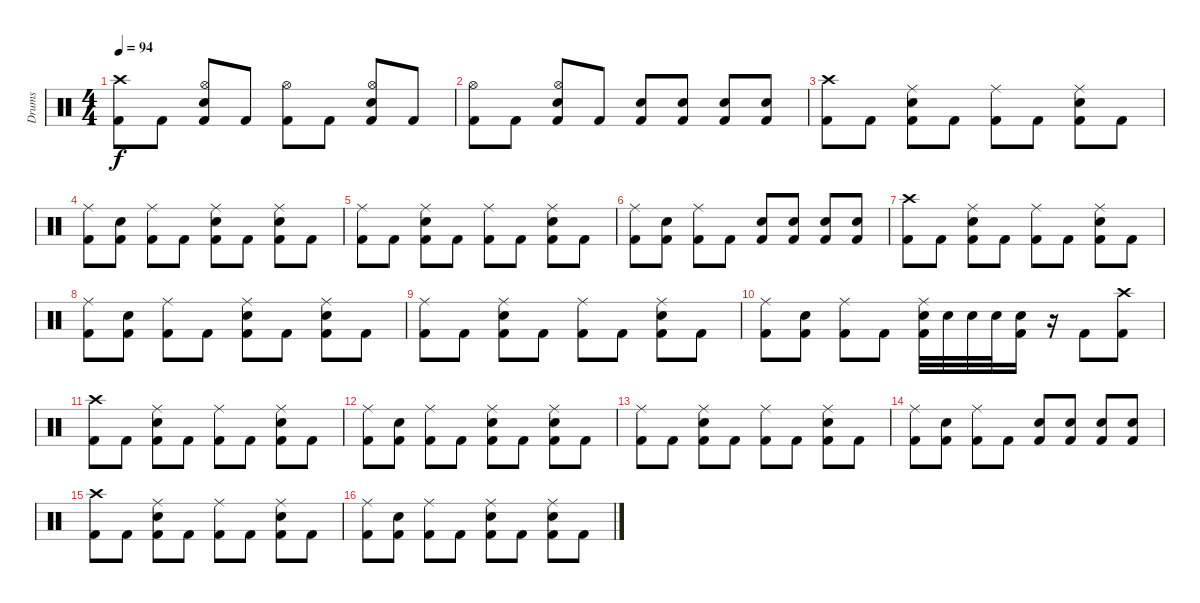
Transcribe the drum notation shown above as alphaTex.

\track ("Drums" "Drums") {instrument percussion}
\staff {score}
\articulation defaults
\ts (4 4)
\tempo 94
\clef neutral
\ks c
("Crash high (hit)" "Kick (hit) 2").8{dy f} "Kick (hit) 2".8 ("Hi-Hat (open)" "Snare (hit) 2" "Kick (hit) 2").8 "Kick (hit) 2".8 ("Hi-Hat (open)" "Kick (hit) 2").8 "Kick (hit) 2".8 ("Hi-Hat (open)" "Snare (hit) 2" "Kick (hit) 2").8 "Kick (hit) 2".8 |
("Hi-Hat (open)" "Kick (hit) 2").8 "Kick (hit) 2".8 ("Hi-Hat (open)" "Snare (hit) 2" "Kick (hit) 2").8 "Kick (hit) 2".8 ("Snare (hit) 2" "Kick (hit) 2").8 ("Snare (hit) 2" "Kick (hit) 2").8 ("Snare (hit) 2" "Kick (hit) 2").8 ("Snare (hit) 2" "Kick (hit) 2").8 |
("Crash high (hit)" "Kick (hit) 2").8 "Kick (hit) 2".8 ("Ride (middle)" "Snare (hit) 2" "Kick (hit) 2").8 "Kick (hit) 2".8 ("Ride (middle)" "Kick (hit) 2").8 "Kick (hit) 2".8 ("Ride (middle)" "Snare (hit) 2" "Kick (hit) 2").8 "Kick (hit) 2".8 |
("Ride (middle)" "Kick (hit) 2").8 ("Snare (hit) 2" "Kick (hit) 2").8 ("Ride (middle)" "Kick (hit) 2").8 "Kick (hit) 2".8 ("Ride (middle)" "Snare (hit) 2" "Kick (hit) 2").8 "Kick (hit) 2".8 ("Ride (middle)" "Snare (hit) 2" "Kick (hit) 2").8 "Kick (hit) 2".8 |
("Ride (middle)" "Kick (hit) 2").8 "Kick (hit) 2".8 ("Ride (middle)" "Snare (hit) 2" "Kick (hit) 2").8 "Kick (hit) 2".8 ("Ride (middle)" "Kick (hit) 2").8 "Kick (hit) 2".8 ("Ride (middle)" "Snare (hit) 2" "Kick (hit) 2").8 "Kick (hit) 2".8 |
("Ride (middle)" "Kick (hit) 2").8 ("Snare (hit) 2" "Kick (hit) 2").8 ("Ride (middle)" "Kick (hit) 2").8 "Kick (hit) 2".8 ("Snare (hit) 2" "Kick (hit) 2").8 ("Snare (hit) 2" "Kick (hit) 2").8 ("Snare (hit) 2" "Kick (hit) 2").8 ("Snare (hit) 2" "Kick (hit) 2").8 |
("Crash high (hit)" "Kick (hit) 2").8 "Kick (hit) 2".8 ("Ride (middle)" "Snare (hit) 2" "Kick (hit) 2").8 "Kick (hit) 2".8 ("Ride (middle)" "Kick (hit) 2").8 "Kick (hit) 2".8 ("Ride (middle)" "Snare (hit) 2" "Kick (hit) 2").8 "Kick (hit) 2".8 |
("Ride (middle)" "Kick (hit) 2").8 ("Snare (hit) 2" "Kick (hit) 2").8 ("Ride (middle)" "Kick (hit) 2").8 "Kick (hit) 2".8 ("Ride (middle)" "Snare (hit) 2" "Kick (hit) 2").8 "Kick (hit) 2".8 ("Ride (middle)" "Snare (hit) 2" "Kick (hit) 2").8 "Kick (hit) 2".8 |
("Ride (middle)" "Kick (hit) 2").8 "Kick (hit) 2".8 ("Ride (middle)" "Snare (hit) 2" "Kick (hit) 2").8 "Kick (hit) 2".8 ("Ride (middle)" "Kick (hit) 2").8 "Kick (hit) 2".8 ("Ride (middle)" "Snare (hit) 2" "Kick (hit) 2").8 "Kick (hit) 2".8 |
("Ride (middle)" "Kick (hit) 2").8 ("Snare (hit) 2" "Kick (hit) 2").8 ("Ride (middle)" "Kick (hit) 2").8 "Kick (hit) 2".8 ("Ride (middle)" "Snare (hit) 2" "Kick (hit) 2").32 "Snare (hit) 2".32 "Snare (hit) 2".32 "Snare (hit) 2".32 ("Snare (hit) 2" "Kick (hit) 2").16 r.16 "Kick (hit) 2".8 ("Crash high (hit)" "Kick (hit) 2").8 |
("Crash high (hit)" "Kick (hit) 2").8 "Kick (hit) 2".8 ("Ride (middle)" "Snare (hit) 2" "Kick (hit) 2").8 "Kick (hit) 2".8 ("Ride (middle)" "Kick (hit) 2").8 "Kick (hit) 2".8 ("Ride (middle)" "Snare (hit) 2" "Kick (hit) 2").8 "Kick (hit) 2".8 |
("Ride (middle)" "Kick (hit) 2").8 ("Snare (hit) 2" "Kick (hit) 2").8 ("Ride (middle)" "Kick (hit) 2").8 "Kick (hit) 2".8 ("Ride (middle)" "Snare (hit) 2" "Kick (hit) 2").8 "Kick (hit) 2".8 ("Ride (middle)" "Snare (hit) 2" "Kick (hit) 2").8 "Kick (hit) 2".8 |
("Ride (middle)" "Kick (hit) 2").8 "Kick (hit) 2".8 ("Ride (middle)" "Snare (hit) 2" "Kick (hit) 2").8 "Kick (hit) 2".8 ("Ride (middle)" "Kick (hit) 2").8 "Kick (hit) 2".8 ("Ride (middle)" "Snare (hit) 2" "Kick (hit) 2").8 "Kick (hit) 2".8 |
("Ride (middle)" "Kick (hit) 2").8 ("Snare (hit) 2" "Kick (hit) 2").8 ("Ride (middle)" "Kick (hit) 2").8 "Kick (hit) 2".8 ("Snare (hit) 2" "Kick (hit) 2").8 ("Snare (hit) 2" "Kick (hit) 2").8 ("Snare (hit) 2" "Kick (hit) 2").8 ("Snare (hit) 2" "Kick (hit) 2").8 |
("Crash high (hit)" "Kick (hit) 2").8 "Kick (hit) 2".8 ("Ride (middle)" "Snare (hit) 2" "Kick (hit) 2").8 "Kick (hit) 2".8 ("Ride (middle)" "Kick (hit) 2").8 "Kick (hit) 2".8 ("Ride (middle)" "Snare (hit) 2" "Kick (hit) 2").8 "Kick (hit) 2".8 |
("Ride (middle)" "Kick (hit) 2").8 ("Snare (hit) 2" "Kick (hit) 2").8 ("Ride (middle)" "Kick (hit) 2").8 "Kick (hit) 2".8 ("Ride (middle)" "Snare (hit) 2" "Kick (hit) 2").8 "Kick (hit) 2".8 ("Ride (middle)" "Snare (hit) 2" "Kick (hit) 2").8 "Kick (hit) 2".8
